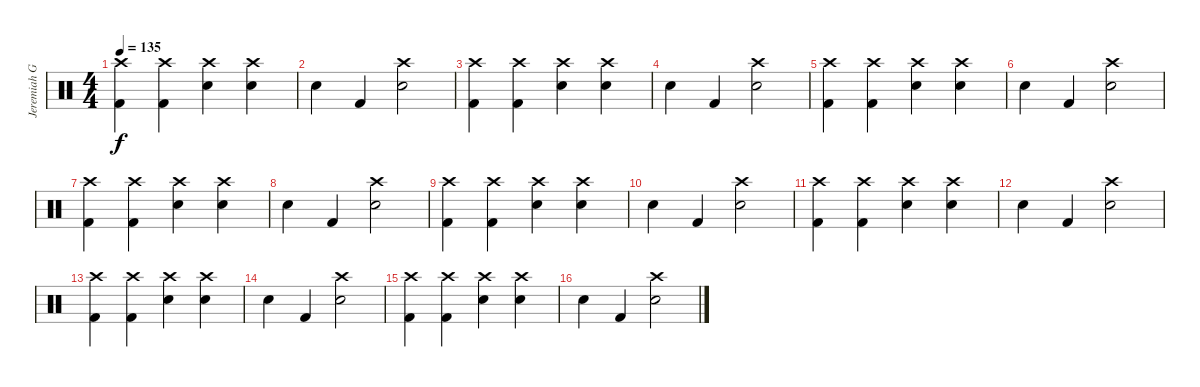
\track ("Jeremiah Green" "Jeremiah G") {instrument percussion}
\staff {score}
\articulation defaults
\ts (4 4)
\tempo 135
\clef neutral
\ks c
("Crash high (hit)" "Kick (hit) 2").4{dy f} ("Crash high (hit)" "Kick (hit) 2").4 ("Crash high (hit)" "Electric Snare (hit)").4 ("Crash high (hit)" "Electric Snare (hit)").4 |
"Electric Snare (hit)".4 "Kick (hit) 2".4 ("Crash high (hit)" "Electric Snare (hit)").2 |
("Crash high (hit)" "Kick (hit) 2").4 ("Crash high (hit)" "Kick (hit) 2").4 ("Crash high (hit)" "Electric Snare (hit)").4 ("Crash high (hit)" "Electric Snare (hit)").4 |
"Electric Snare (hit)".4 "Kick (hit) 2".4 ("Crash high (hit)" "Electric Snare (hit)").2 |
("Crash high (hit)" "Kick (hit) 2").4 ("Crash high (hit)" "Kick (hit) 2").4 ("Crash high (hit)" "Electric Snare (hit)").4 ("Crash high (hit)" "Electric Snare (hit)").4 |
"Electric Snare (hit)".4 "Kick (hit) 2".4 ("Crash high (hit)" "Electric Snare (hit)").2 |
("Crash high (hit)" "Kick (hit) 2").4 ("Crash high (hit)" "Kick (hit) 2").4 ("Crash high (hit)" "Electric Snare (hit)").4 ("Crash high (hit)" "Electric Snare (hit)").4 |
"Electric Snare (hit)".4 "Kick (hit) 2".4 ("Crash high (hit)" "Electric Snare (hit)").2 |
("Crash high (hit)" "Kick (hit) 2").4 ("Crash high (hit)" "Kick (hit) 2").4 ("Crash high (hit)" "Electric Snare (hit)").4 ("Crash high (hit)" "Electric Snare (hit)").4 |
"Electric Snare (hit)".4 "Kick (hit) 2".4 ("Crash high (hit)" "Electric Snare (hit)").2 |
("Crash high (hit)" "Kick (hit) 2").4 ("Crash high (hit)" "Kick (hit) 2").4 ("Crash high (hit)" "Electric Snare (hit)").4 ("Crash high (hit)" "Electric Snare (hit)").4 |
"Electric Snare (hit)".4 "Kick (hit) 2".4 ("Crash high (hit)" "Electric Snare (hit)").2 |
("Crash high (hit)" "Kick (hit) 2").4 ("Crash high (hit)" "Kick (hit) 2").4 ("Crash high (hit)" "Electric Snare (hit)").4 ("Crash high (hit)" "Electric Snare (hit)").4 |
"Electric Snare (hit)".4 "Kick (hit) 2".4 ("Crash high (hit)" "Electric Snare (hit)").2 |
("Crash high (hit)" "Kick (hit) 2").4 ("Crash high (hit)" "Kick (hit) 2").4 ("Crash high (hit)" "Electric Snare (hit)").4 ("Crash high (hit)" "Electric Snare (hit)").4 |
"Electric Snare (hit)".4 "Kick (hit) 2".4 ("Crash high (hit)" "Electric Snare (hit)").2
